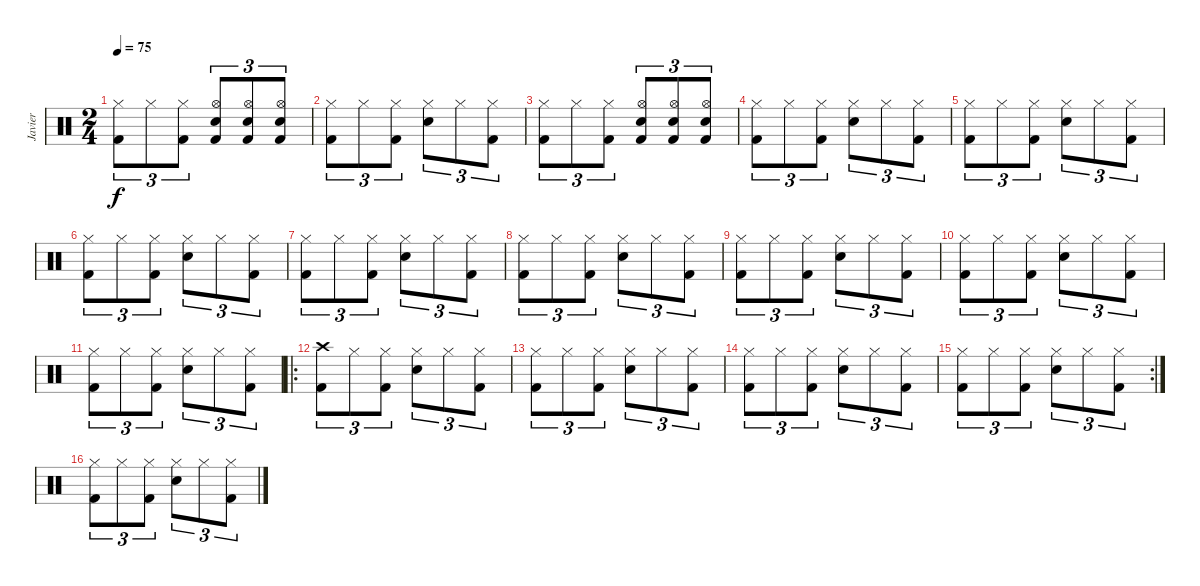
\track ("Javier" "Javier") {instrument percussion}
\staff {score}
\articulation defaults
\ts (2 4)
\tempo 75
\clef neutral
\ks c
("Hi-Hat (closed)" "Kick (hit) 2").8{tu (3 2) dy f} "Hi-Hat (closed)".8{tu (3 2)} ("Hi-Hat (closed)" "Kick (hit) 2").8{tu (3 2)} ("Hi-Hat (open)" "Snare (hit) 2" "Kick (hit) 2").8{tu (3 2)} ("Hi-Hat (open)" "Snare (hit) 2" "Kick (hit) 2").8{tu (3 2)} ("Hi-Hat (open)" "Snare (hit) 2" "Kick (hit) 2").8{tu (3 2)} |
("Hi-Hat (closed)" "Kick (hit) 2").8{tu (3 2)} "Hi-Hat (closed)".8{tu (3 2)} ("Hi-Hat (closed)" "Kick (hit) 2").8{tu (3 2)} ("Hi-Hat (closed)" "Snare (hit) 2").8{tu (3 2)} "Hi-Hat (closed)".8{tu (3 2)} ("Hi-Hat (closed)" "Kick (hit) 2").8{tu (3 2)} |
("Hi-Hat (closed)" "Kick (hit) 2").8{tu (3 2)} "Hi-Hat (closed)".8{tu (3 2)} ("Hi-Hat (closed)" "Kick (hit) 2").8{tu (3 2)} ("Hi-Hat (open)" "Snare (hit) 2" "Kick (hit) 2").8{tu (3 2)} ("Hi-Hat (open)" "Snare (hit) 2" "Kick (hit) 2").8{tu (3 2)} ("Hi-Hat (open)" "Snare (hit) 2" "Kick (hit) 2").8{tu (3 2)} |
("Hi-Hat (closed)" "Kick (hit) 2").8{tu (3 2)} "Hi-Hat (closed)".8{tu (3 2)} ("Hi-Hat (closed)" "Kick (hit) 2").8{tu (3 2)} ("Hi-Hat (closed)" "Snare (hit) 2").8{tu (3 2)} "Hi-Hat (closed)".8{tu (3 2)} ("Hi-Hat (closed)" "Kick (hit) 2").8{tu (3 2)} |
("Hi-Hat (closed)" "Kick (hit) 2").8{tu (3 2)} "Hi-Hat (closed)".8{tu (3 2)} ("Hi-Hat (closed)" "Kick (hit) 2").8{tu (3 2)} ("Hi-Hat (closed)" "Snare (hit) 2").8{tu (3 2)} "Hi-Hat (closed)".8{tu (3 2)} ("Hi-Hat (closed)" "Kick (hit) 2").8{tu (3 2)} |
("Hi-Hat (closed)" "Kick (hit) 2").8{tu (3 2)} "Hi-Hat (closed)".8{tu (3 2)} ("Hi-Hat (closed)" "Kick (hit) 2").8{tu (3 2)} ("Hi-Hat (closed)" "Snare (hit) 2").8{tu (3 2)} "Hi-Hat (closed)".8{tu (3 2)} ("Hi-Hat (closed)" "Kick (hit) 2").8{tu (3 2)} |
("Hi-Hat (closed)" "Kick (hit) 2").8{tu (3 2)} "Hi-Hat (closed)".8{tu (3 2)} ("Hi-Hat (closed)" "Kick (hit) 2").8{tu (3 2)} ("Hi-Hat (closed)" "Snare (hit) 2").8{tu (3 2)} "Hi-Hat (closed)".8{tu (3 2)} ("Hi-Hat (closed)" "Kick (hit) 2").8{tu (3 2)} |
("Hi-Hat (closed)" "Kick (hit) 2").8{tu (3 2)} "Hi-Hat (closed)".8{tu (3 2)} ("Hi-Hat (closed)" "Kick (hit) 2").8{tu (3 2)} ("Hi-Hat (closed)" "Snare (hit) 2").8{tu (3 2)} "Hi-Hat (closed)".8{tu (3 2)} ("Hi-Hat (closed)" "Kick (hit) 2").8{tu (3 2)} |
("Hi-Hat (closed)" "Kick (hit) 2").8{tu (3 2)} "Hi-Hat (closed)".8{tu (3 2)} ("Hi-Hat (closed)" "Kick (hit) 2").8{tu (3 2)} ("Hi-Hat (closed)" "Snare (hit) 2").8{tu (3 2)} "Hi-Hat (closed)".8{tu (3 2)} ("Hi-Hat (closed)" "Kick (hit) 2").8{tu (3 2)} |
("Hi-Hat (closed)" "Kick (hit) 2").8{tu (3 2)} "Hi-Hat (closed)".8{tu (3 2)} ("Hi-Hat (closed)" "Kick (hit) 2").8{tu (3 2)} ("Hi-Hat (closed)" "Snare (hit) 2").8{tu (3 2)} "Hi-Hat (closed)".8{tu (3 2)} ("Hi-Hat (closed)" "Kick (hit) 2").8{tu (3 2)} |
("Hi-Hat (closed)" "Kick (hit) 2").8{tu (3 2)} "Hi-Hat (closed)".8{tu (3 2)} ("Hi-Hat (closed)" "Kick (hit) 2").8{tu (3 2)} ("Hi-Hat (closed)" "Snare (hit) 2").8{tu (3 2)} "Hi-Hat (closed)".8{tu (3 2)} ("Hi-Hat (closed)" "Kick (hit) 2").8{tu (3 2)} |
\ro
("Crash high (hit)" "Kick (hit) 2").8{tu (3 2)} "Hi-Hat (closed)".8{tu (3 2)} ("Hi-Hat (closed)" "Kick (hit) 2").8{tu (3 2)} ("Hi-Hat (closed)" "Snare (hit) 2").8{tu (3 2)} "Hi-Hat (closed)".8{tu (3 2)} ("Hi-Hat (closed)" "Kick (hit) 2").8{tu (3 2)} |
("Hi-Hat (closed)" "Kick (hit) 2").8{tu (3 2)} "Hi-Hat (closed)".8{tu (3 2)} ("Hi-Hat (closed)" "Kick (hit) 2").8{tu (3 2)} ("Hi-Hat (closed)" "Snare (hit) 2").8{tu (3 2)} "Hi-Hat (closed)".8{tu (3 2)} ("Hi-Hat (closed)" "Kick (hit) 2").8{tu (3 2)} |
("Hi-Hat (closed)" "Kick (hit) 2").8{tu (3 2)} "Hi-Hat (closed)".8{tu (3 2)} ("Hi-Hat (closed)" "Kick (hit) 2").8{tu (3 2)} ("Hi-Hat (closed)" "Snare (hit) 2").8{tu (3 2)} "Hi-Hat (closed)".8{tu (3 2)} ("Hi-Hat (closed)" "Kick (hit) 2").8{tu (3 2)} |
\rc 2
("Hi-Hat (closed)" "Kick (hit) 2").8{tu (3 2)} "Hi-Hat (closed)".8{tu (3 2)} ("Hi-Hat (closed)" "Kick (hit) 2").8{tu (3 2)} ("Hi-Hat (closed)" "Snare (hit) 2").8{tu (3 2)} "Hi-Hat (closed)".8{tu (3 2)} ("Hi-Hat (closed)" "Kick (hit) 2").8{tu (3 2)} |
("Hi-Hat (closed)" "Kick (hit) 2").8{tu (3 2)} "Hi-Hat (closed)".8{tu (3 2)} ("Hi-Hat (closed)" "Kick (hit) 2").8{tu (3 2)} ("Hi-Hat (closed)" "Snare (hit) 2").8{tu (3 2)} "Hi-Hat (closed)".8{tu (3 2)} ("Hi-Hat (closed)" "Kick (hit) 2").8{tu (3 2)}
